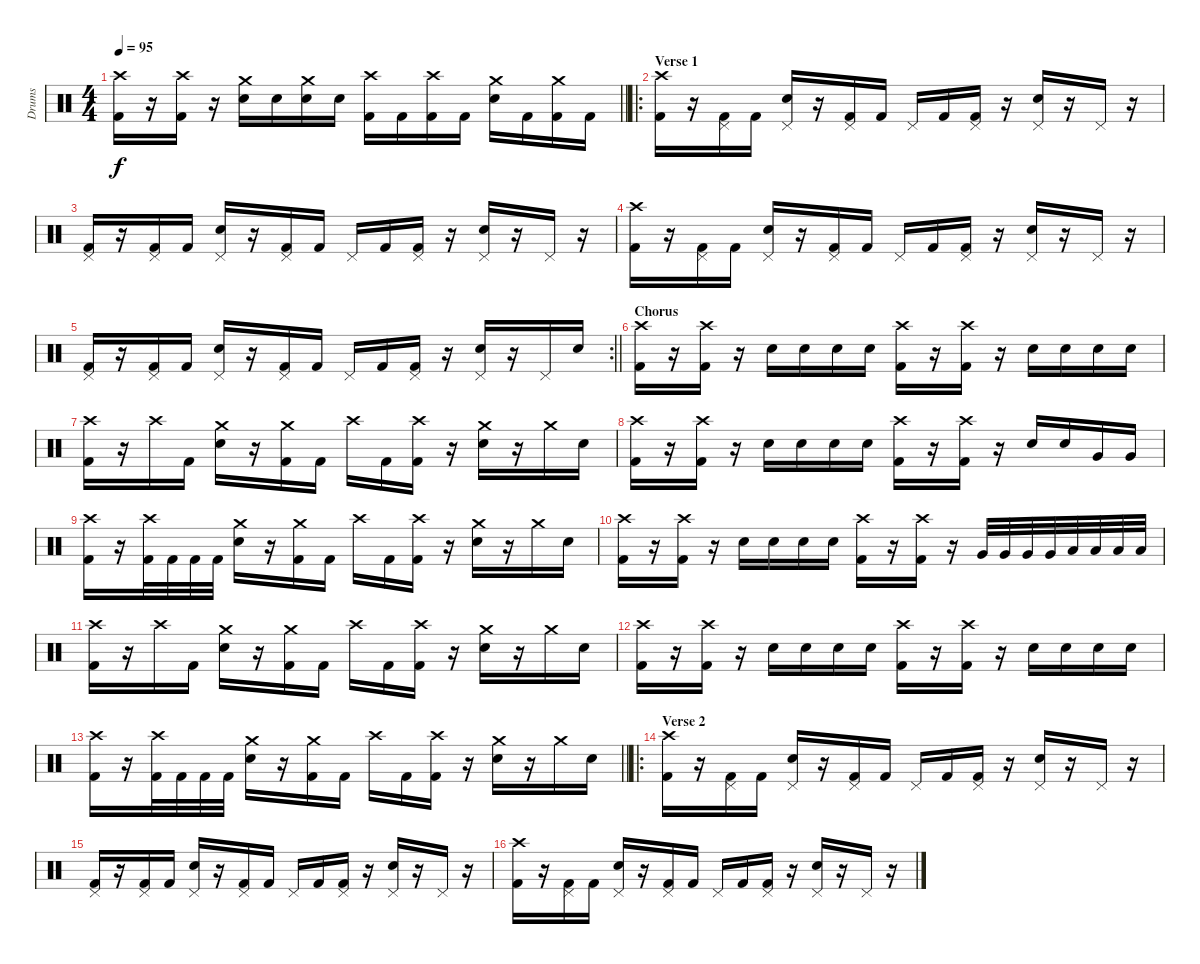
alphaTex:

\track ("Drums" "Drums") {instrument percussion}
\staff {score}
\articulation defaults
\ts (4 4)
\tempo 95
\clef neutral
\barLineRight lightlight
\ks c
("Crash high (hit)" "Kick (hit) 2").16{dy f} r.16 ("Crash high (hit)" "Kick (hit) 2").16 r.16 ("Crash medium (hit)" "Electric Snare (hit)").16 "Electric Snare (hit)".16 ("Crash medium (hit)" "Electric Snare (hit)").16 "Electric Snare (hit)".16 ("Crash high (hit)" "Kick (hit) 2").16 "Kick (hit) 2".16 ("Crash high (hit)" "Kick (hit) 2").16 "Kick (hit) 2".16 ("Crash medium (hit)" "Electric Snare (hit)").16 "Kick (hit) 2".16 ("Crash medium (hit)" "Kick (hit) 2").16 "Kick (hit) 2".16 |
\ro
\section ("" "Verse 1")
("Crash high (hit)" "Kick (hit) 2").16 r.16 ("Pedal Hi-Hat (hit)" "Kick (hit) 2").16 "Kick (hit) 2".16 ("Pedal Hi-Hat (hit)" "Electric Snare (hit)").16 r.16 ("Pedal Hi-Hat (hit)" "Kick (hit) 2").16 "Kick (hit) 2".16 "Pedal Hi-Hat (hit)".16 "Kick (hit) 2".16 ("Pedal Hi-Hat (hit)" "Kick (hit) 2").16 r.16 ("Pedal Hi-Hat (hit)" "Electric Snare (hit)").16 r.16 "Pedal Hi-Hat (hit)".16 r.16 |
("Pedal Hi-Hat (hit)" "Kick (hit) 2").16 r.16 ("Pedal Hi-Hat (hit)" "Kick (hit) 2").16 "Kick (hit) 2".16 ("Pedal Hi-Hat (hit)" "Electric Snare (hit)").16 r.16 ("Pedal Hi-Hat (hit)" "Kick (hit) 2").16 "Kick (hit) 2".16 "Pedal Hi-Hat (hit)".16 "Kick (hit) 2".16 ("Pedal Hi-Hat (hit)" "Kick (hit) 2").16 r.16 ("Pedal Hi-Hat (hit)" "Electric Snare (hit)").16 r.16 "Pedal Hi-Hat (hit)".16 r.16 |
("Crash high (hit)" "Kick (hit) 2").16 r.16 ("Pedal Hi-Hat (hit)" "Kick (hit) 2").16 "Kick (hit) 2".16 ("Pedal Hi-Hat (hit)" "Electric Snare (hit)").16 r.16 ("Pedal Hi-Hat (hit)" "Kick (hit) 2").16 "Kick (hit) 2".16 "Pedal Hi-Hat (hit)".16 "Kick (hit) 2".16 ("Pedal Hi-Hat (hit)" "Kick (hit) 2").16 r.16 ("Pedal Hi-Hat (hit)" "Electric Snare (hit)").16 r.16 "Pedal Hi-Hat (hit)".16 r.16 |
\rc 2
\barLineRight lightlight
("Pedal Hi-Hat (hit)" "Kick (hit) 2").16 r.16 ("Pedal Hi-Hat (hit)" "Kick (hit) 2").16 "Kick (hit) 2".16 ("Pedal Hi-Hat (hit)" "Electric Snare (hit)").16 r.16 ("Pedal Hi-Hat (hit)" "Kick (hit) 2").16 "Kick (hit) 2".16 "Pedal Hi-Hat (hit)".16 "Kick (hit) 2".16 ("Pedal Hi-Hat (hit)" "Kick (hit) 2").16 r.16 ("Pedal Hi-Hat (hit)" "Electric Snare (hit)").16 r.16 "Pedal Hi-Hat (hit)".16 "Electric Snare (hit)".16 |
\section ("" "Chorus")
("Crash high (hit)" "Kick (hit) 2").16 r.16 ("Crash high (hit)" "Kick (hit) 2").16 r.16 "Electric Snare (hit)".16 "Electric Snare (hit)".16 "Electric Snare (hit)".16 "Electric Snare (hit)".16 ("Crash high (hit)" "Kick (hit) 2").16 r.16 ("Crash high (hit)" "Kick (hit) 2").16 r.16 "Electric Snare (hit)".16 "Electric Snare (hit)".16 "Electric Snare (hit)".16 "Electric Snare (hit)".16 |
("Crash high (hit)" "Kick (hit) 2").16 r.16 "Crash high (hit)".16 "Kick (hit) 2".16 ("Crash medium (hit)" "Electric Snare (hit)").16 r.16 ("Crash medium (hit)" "Kick (hit) 2").16 "Kick (hit) 2".16 "Crash high (hit)".16 "Kick (hit) 2".16 ("Crash high (hit)" "Kick (hit) 2").16 r.16 ("Crash medium (hit)" "Electric Snare (hit)").16 r.16 "Crash medium (hit)".16 "Electric Snare (hit)".16 |
("Crash high (hit)" "Kick (hit) 2").16 r.16 ("Crash high (hit)" "Kick (hit) 2").16 r.16 "Electric Snare (hit)".16 "Electric Snare (hit)".16 "Electric Snare (hit)".16 "Electric Snare (hit)".16 ("Crash high (hit)" "Kick (hit) 2").16 r.16 ("Crash high (hit)" "Kick (hit) 2").16 r.16 "Electric Snare (hit)".16 "Electric Snare (hit)".16 "Very Low Tom (hit)".16 "Very Low Tom (hit)".16 |
("Crash high (hit)" "Kick (hit) 2").16 r.16 ("Crash high (hit)" "Kick (hit) 2").32 "Kick (hit) 2".32 "Kick (hit) 2".32 "Kick (hit) 2".32 ("Crash medium (hit)" "Electric Snare (hit)").16 r.16 ("Crash medium (hit)" "Kick (hit) 2").16 "Kick (hit) 2".16 "Crash high (hit)".16 "Kick (hit) 2".16 ("Crash high (hit)" "Kick (hit) 2").16 r.16 ("Crash medium (hit)" "Electric Snare (hit)").16 r.16 "Crash medium (hit)".16 "Electric Snare (hit)".16 |
("Crash high (hit)" "Kick (hit) 2").16 r.16 ("Crash high (hit)" "Kick (hit) 2").16 r.16 "Electric Snare (hit)".16 "Electric Snare (hit)".16 "Electric Snare (hit)".16 "Electric Snare (hit)".16 ("Crash high (hit)" "Kick (hit) 2").16 r.16 ("Crash high (hit)" "Kick (hit) 2").16 r.16 "Very Low Tom (hit)".32 "Very Low Tom (hit)".32 "Very Low Tom (hit)".32 "Very Low Tom (hit)".32 "Low Floor Tom (hit)".32 "Low Floor Tom (hit)".32 "Low Floor Tom (hit)".32 "Low Floor Tom (hit)".32 |
("Crash high (hit)" "Kick (hit) 2").16 r.16 "Crash high (hit)".16 "Kick (hit) 2".16 ("Crash medium (hit)" "Electric Snare (hit)").16 r.16 ("Crash medium (hit)" "Kick (hit) 2").16 "Kick (hit) 2".16 "Crash high (hit)".16 "Kick (hit) 2".16 ("Crash high (hit)" "Kick (hit) 2").16 r.16 ("Crash medium (hit)" "Electric Snare (hit)").16 r.16 "Crash medium (hit)".16 "Electric Snare (hit)".16 |
("Crash high (hit)" "Kick (hit) 2").16 r.16 ("Crash high (hit)" "Kick (hit) 2").16 r.16 "Electric Snare (hit)".16 "Electric Snare (hit)".16 "Electric Snare (hit)".16 "Electric Snare (hit)".16 ("Crash high (hit)" "Kick (hit) 2").16 r.16 ("Crash high (hit)" "Kick (hit) 2").16 r.16 "Electric Snare (hit)".16 "Electric Snare (hit)".16 "Electric Snare (hit)".16 "Electric Snare (hit)".16 |
\barLineRight lightlight
("Crash high (hit)" "Kick (hit) 2").16 r.16 ("Crash high (hit)" "Kick (hit) 2").32 "Kick (hit) 2".32 "Kick (hit) 2".32 "Kick (hit) 2".32 ("Crash medium (hit)" "Electric Snare (hit)").16 r.16 ("Crash medium (hit)" "Kick (hit) 2").16 "Kick (hit) 2".16 "Crash high (hit)".16 "Kick (hit) 2".16 ("Crash high (hit)" "Kick (hit) 2").16 r.16 ("Crash medium (hit)" "Electric Snare (hit)").16 r.16 "Crash medium (hit)".16 "Electric Snare (hit)".16 |
\ro
\section ("" "Verse 2")
("Crash high (hit)" "Kick (hit) 2").16 r.16 ("Pedal Hi-Hat (hit)" "Kick (hit) 2").16 "Kick (hit) 2".16 ("Pedal Hi-Hat (hit)" "Electric Snare (hit)").16 r.16 ("Pedal Hi-Hat (hit)" "Kick (hit) 2").16 "Kick (hit) 2".16 "Pedal Hi-Hat (hit)".16 "Kick (hit) 2".16 ("Pedal Hi-Hat (hit)" "Kick (hit) 2").16 r.16 ("Pedal Hi-Hat (hit)" "Electric Snare (hit)").16 r.16 "Pedal Hi-Hat (hit)".16 r.16 |
("Pedal Hi-Hat (hit)" "Kick (hit) 2").16 r.16 ("Pedal Hi-Hat (hit)" "Kick (hit) 2").16 "Kick (hit) 2".16 ("Pedal Hi-Hat (hit)" "Electric Snare (hit)").16 r.16 ("Pedal Hi-Hat (hit)" "Kick (hit) 2").16 "Kick (hit) 2".16 "Pedal Hi-Hat (hit)".16 "Kick (hit) 2".16 ("Pedal Hi-Hat (hit)" "Kick (hit) 2").16 r.16 ("Pedal Hi-Hat (hit)" "Electric Snare (hit)").16 r.16 "Pedal Hi-Hat (hit)".16 r.16 |
("Crash high (hit)" "Kick (hit) 2").16 r.16 ("Pedal Hi-Hat (hit)" "Kick (hit) 2").16 "Kick (hit) 2".16 ("Pedal Hi-Hat (hit)" "Electric Snare (hit)").16 r.16 ("Pedal Hi-Hat (hit)" "Kick (hit) 2").16 "Kick (hit) 2".16 "Pedal Hi-Hat (hit)".16 "Kick (hit) 2".16 ("Pedal Hi-Hat (hit)" "Kick (hit) 2").16 r.16 ("Pedal Hi-Hat (hit)" "Electric Snare (hit)").16 r.16 "Pedal Hi-Hat (hit)".16 r.16
